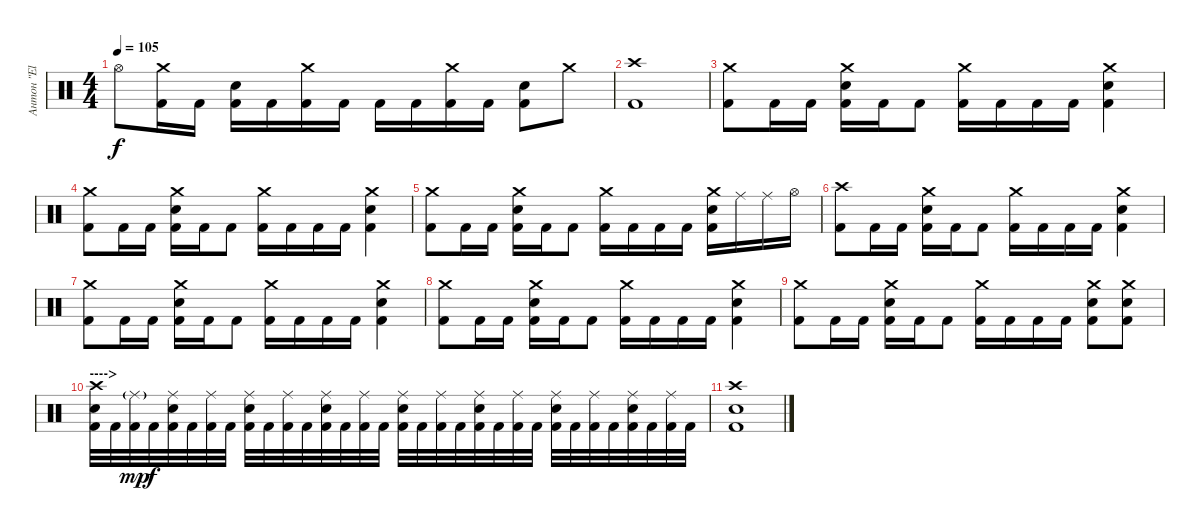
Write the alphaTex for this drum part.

\track ("Антон \"El Bastardo\" Смольянин" "Антон \"El ") {instrument percussion}
\staff {score}
\articulation defaults
\ts (4 4)
\tempo 105
\clef neutral
\ks c "Hi-Hat (open)".8{dy f}
("Crash medium (hit)" "Kick (hit) 2").16 "Kick (hit) 2".16 ("Electric Snare (hit)" "Kick (hit) 2").16 "Kick (hit) 2".16 ("Crash medium (hit)" "Kick (hit) 2").16 "Kick (hit) 2".16 "Kick (hit) 2".16 "Kick (hit) 2".16 ("Crash medium (hit)" "Kick (hit) 2").16 "Kick (hit) 2".16 ("Electric Snare (hit)" "Kick (hit) 2").8 "Crash medium (hit)".8 |
("Crash high (hit)" "Kick (hit) 2").1 |
("Crash medium (hit)" "Kick (hit) 2").8 "Kick (hit) 2".16 "Kick (hit) 2".16 ("Crash medium (hit)" "Electric Snare (hit)" "Kick (hit) 2").16 "Kick (hit) 2".16 "Kick (hit) 2".8 ("Crash medium (hit)" "Kick (hit) 2").16 "Kick (hit) 2".16 "Kick (hit) 2".16 "Kick (hit) 2".16 ("Crash medium (hit)" "Electric Snare (hit)" "Kick (hit) 2").4 |
("Crash medium (hit)" "Kick (hit) 2").8 "Kick (hit) 2".16 "Kick (hit) 2".16 ("Crash medium (hit)" "Electric Snare (hit)" "Kick (hit) 2").16 "Kick (hit) 2".16 "Kick (hit) 2".8 ("Crash medium (hit)" "Kick (hit) 2").16 "Kick (hit) 2".16 "Kick (hit) 2".16 "Kick (hit) 2".16 ("Crash medium (hit)" "Electric Snare (hit)" "Kick (hit) 2").4 |
("Crash medium (hit)" "Kick (hit) 2").8 "Kick (hit) 2".16 "Kick (hit) 2".16 ("Crash medium (hit)" "Electric Snare (hit)" "Kick (hit) 2").16 "Kick (hit) 2".16 "Kick (hit) 2".8 ("Crash medium (hit)" "Kick (hit) 2").16 "Kick (hit) 2".16 "Kick (hit) 2".16 "Kick (hit) 2".16 ("Crash medium (hit)" "Electric Snare (hit)" "Kick (hit) 2").16 "Ride (middle)".16 "Ride (middle)".16 "Hi-Hat (open)".16 |
("Crash high (hit)" "Kick (hit) 2").8 "Kick (hit) 2".16 "Kick (hit) 2".16 ("Crash medium (hit)" "Electric Snare (hit)" "Kick (hit) 2").16 "Kick (hit) 2".16 "Kick (hit) 2".8 ("Crash medium (hit)" "Kick (hit) 2").16 "Kick (hit) 2".16 "Kick (hit) 2".16 "Kick (hit) 2".16 ("Crash medium (hit)" "Electric Snare (hit)" "Kick (hit) 2").4 |
("Crash medium (hit)" "Kick (hit) 2").8 "Kick (hit) 2".16 "Kick (hit) 2".16 ("Crash medium (hit)" "Electric Snare (hit)" "Kick (hit) 2").16 "Kick (hit) 2".16 "Kick (hit) 2".8 ("Crash medium (hit)" "Kick (hit) 2").16 "Kick (hit) 2".16 "Kick (hit) 2".16 "Kick (hit) 2".16 ("Crash medium (hit)" "Electric Snare (hit)" "Kick (hit) 2").4 |
("Crash medium (hit)" "Kick (hit) 2").8 "Kick (hit) 2".16 "Kick (hit) 2".16 ("Crash medium (hit)" "Electric Snare (hit)" "Kick (hit) 2").16 "Kick (hit) 2".16 "Kick (hit) 2".8 ("Crash medium (hit)" "Kick (hit) 2").16 "Kick (hit) 2".16 "Kick (hit) 2".16 "Kick (hit) 2".16 ("Crash medium (hit)" "Electric Snare (hit)" "Kick (hit) 2").4 |
("Crash medium (hit)" "Kick (hit) 2").8 "Kick (hit) 2".16 "Kick (hit) 2".16 ("Crash medium (hit)" "Electric Snare (hit)" "Kick (hit) 2").16 "Kick (hit) 2".16 "Kick (hit) 2".8 ("Crash medium (hit)" "Kick (hit) 2").16 "Kick (hit) 2".16 "Kick (hit) 2".16 "Kick (hit) 2".16 ("Crash medium (hit)" "Electric Snare (hit)" "Kick (hit) 2").8 ("Crash medium (hit)" "Electric Snare (hit)" "Kick (hit) 2").8 |
\section ("" "---->")
("Crash high (hit)" "Electric Snare (hit)" "Kick (hit) 2").32 "Kick (hit) 2".32 ("Ride (middle)"{g} "Kick (hit) 2").32{dy mp} "Kick (hit) 2".32{dy f} ("Ride (middle)" "Electric Snare (hit)" "Kick (hit) 2").32 "Kick (hit) 2".32 ("Ride (middle)" "Kick (hit) 2").32 "Kick (hit) 2".32 ("Ride (middle)" "Electric Snare (hit)" "Kick (hit) 2").32 "Kick (hit) 2".32 ("Ride (middle)" "Kick (hit) 2").32 "Kick (hit) 2".32 ("Ride (middle)" "Electric Snare (hit)" "Kick (hit) 2").32 "Kick (hit) 2".32 ("Ride (middle)" "Kick (hit) 2").32 "Kick (hit) 2".32 ("Ride (middle)" "Electric Snare (hit)" "Kick (hit) 2").32 "Kick (hit) 2".32 ("Ride (middle)" "Kick (hit) 2").32 "Kick (hit) 2".32 ("Ride (middle)" "Electric Snare (hit)" "Kick (hit) 2").32 "Kick (hit) 2".32 ("Ride (middle)" "Kick (hit) 2").32 "Kick (hit) 2".32 ("Ride (middle)" "Electric Snare (hit)" "Kick (hit) 2").32 "Kick (hit) 2".32 ("Ride (middle)" "Kick (hit) 2").32 "Kick (hit) 2".32 ("Ride (middle)" "Electric Snare (hit)" "Kick (hit) 2").32 "Kick (hit) 2".32 ("Ride (middle)" "Kick (hit) 2").32 "Kick (hit) 2".32 |
("Crash high (hit)" "Electric Snare (hit)" "Kick (hit) 2").1
